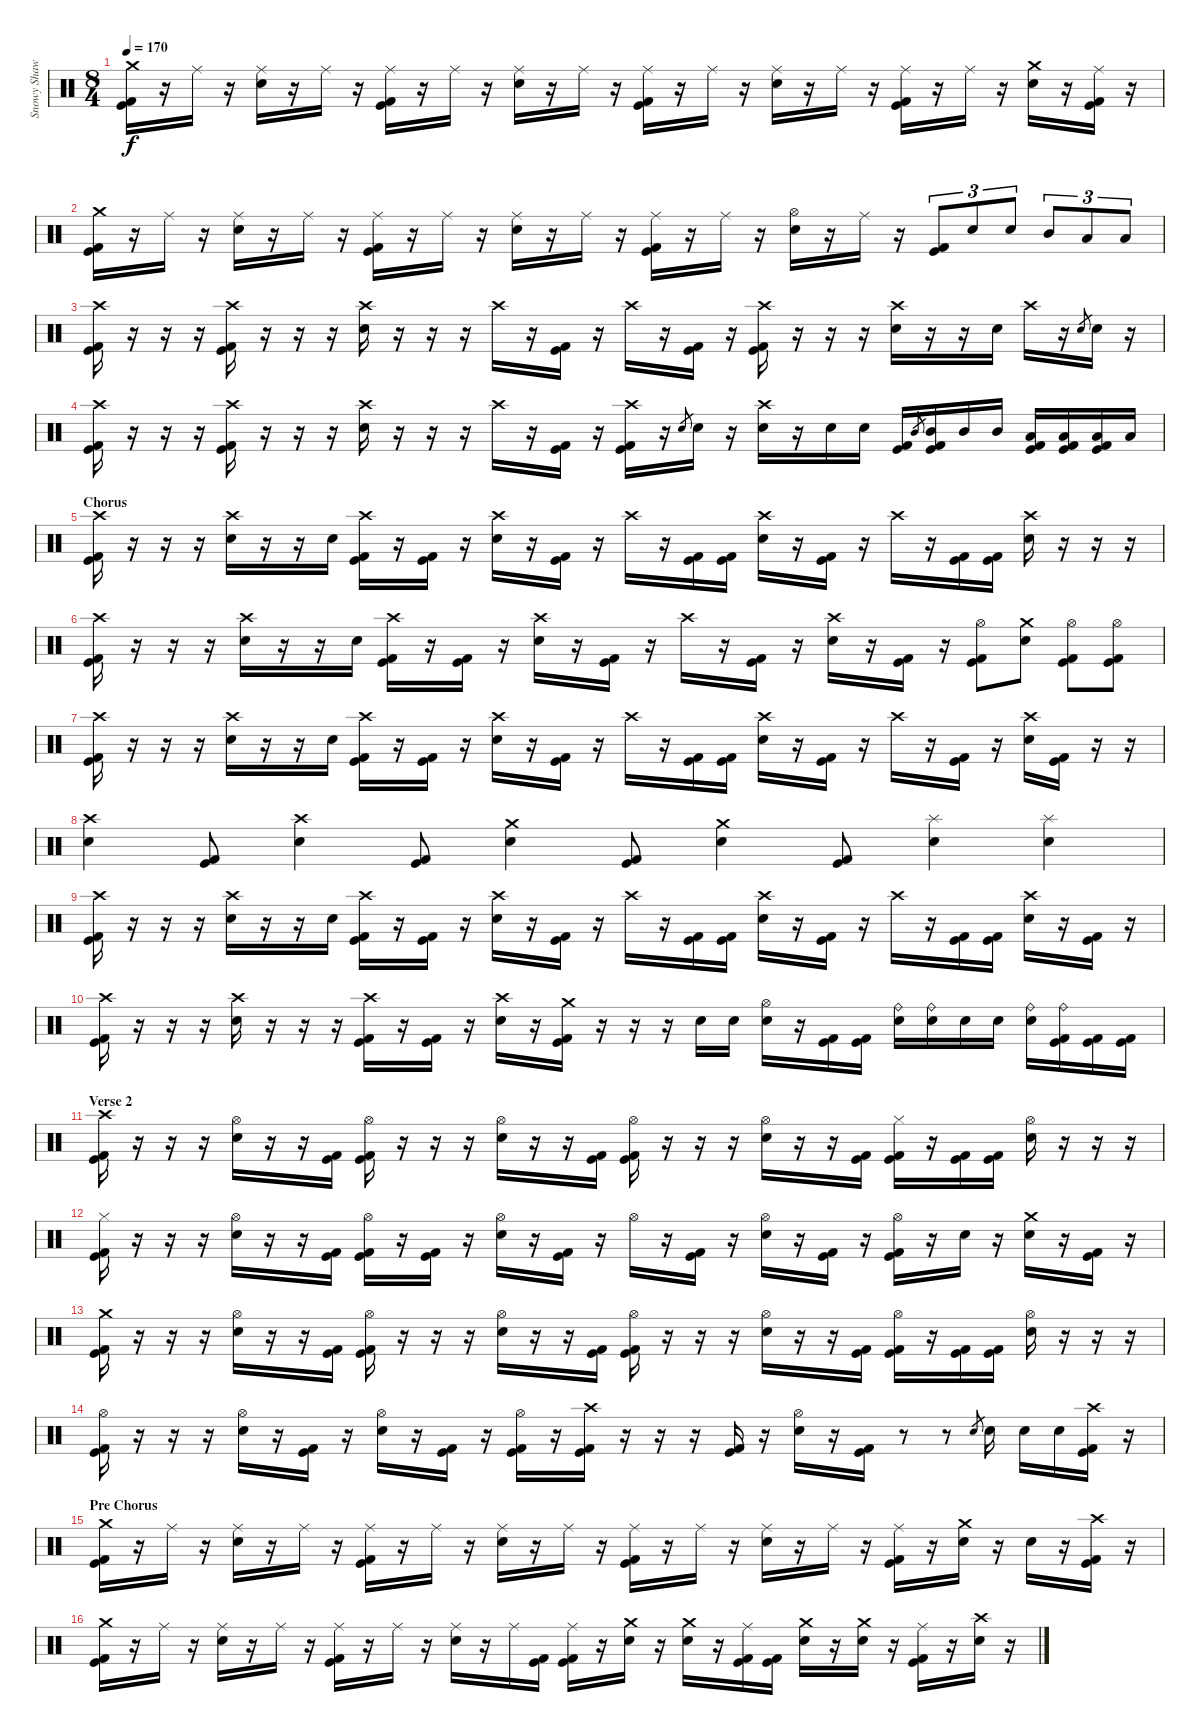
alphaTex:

\track ("Snowy Shaw" "Snowy Shaw") {instrument percussion}
\staff {score}
\articulation defaults
\ts (8 4)
\tempo 170
\clef neutral
\ks c
("Crash medium (hit)" "Kick (hit)" "Kick (hit) 2").16{dy f} r.16 "Ride (middle)".16 r.16 ("Ride (middle)" "Electric Snare (hit)").16 r.16 "Ride (middle)".16 r.16 ("Ride (middle)" "Kick (hit)" "Kick (hit) 2").16 r.16 "Ride (middle)".16 r.16 ("Ride (middle)" "Electric Snare (hit)").16 r.16 "Ride (middle)".16 r.16 ("Ride (middle)" "Kick (hit)" "Kick (hit) 2").16 r.16 "Ride (middle)".16 r.16 ("Ride (middle)" "Electric Snare (hit)").16 r.16 "Ride (middle)".16 r.16 ("Ride (middle)" "Kick (hit)" "Kick (hit) 2").16 r.16 "Ride (middle)".16 r.16 ("Crash medium (hit)" "Electric Snare (hit)").16 r.16 ("Ride (middle)" "Kick (hit)" "Kick (hit) 2").16 r.16 |
("Crash medium (hit)" "Kick (hit)" "Kick (hit) 2").16 r.16 "Ride (middle)".16 r.16 ("Ride (middle)" "Electric Snare (hit)").16 r.16 "Ride (middle)".16 r.16 ("Ride (middle)" "Kick (hit)" "Kick (hit) 2").16 r.16 "Ride (middle)".16 r.16 ("Ride (middle)" "Electric Snare (hit)").16 r.16 "Ride (middle)".16 r.16 ("Ride (middle)" "Kick (hit)" "Kick (hit) 2").16 r.16 "Ride (middle)".16 r.16 ("Hi-Hat (open)" "Electric Snare (hit)").16 r.16 "Ride (middle)".16 r.16 ("Kick (hit)" "Kick (hit) 2").8{tu (3 2)} "Electric Snare (hit)".8{tu (3 2)} "Electric Snare (hit)".8{tu (3 2)} "Mid Tom (hit)".8{tu (3 2)} "Low Tom (hit)".8{tu (3 2)} "Low Tom (hit)".8{tu (3 2)} |
("Crash high (hit)" "Kick (hit)" "Kick (hit) 2").16 r.16 r.16 r.16 ("Crash high (hit)" "Kick (hit)" "Kick (hit) 2").16 r.16 r.16 r.16 ("Crash high (hit)" "Electric Snare (hit)").16 r.16 r.16 r.16 "Crash high (hit)".16 r.16 ("Kick (hit)" "Kick (hit) 2").16 r.16 "Crash high (hit)".16 r.16 ("Kick (hit)" "Kick (hit) 2").16 r.16 ("Crash high (hit)" "Kick (hit)" "Kick (hit) 2").16 r.16 r.16 r.16 ("Crash high (hit)" "Electric Snare (hit)").16 r.16 r.16 "Electric Snare (hit)".16 "Crash high (hit)".16 r.16 "Electric Snare (hit)".8{gr} "Electric Snare (hit)".16 r.16 |
("Crash high (hit)" "Kick (hit)" "Kick (hit) 2").16 r.16 r.16 r.16 ("Crash high (hit)" "Kick (hit)" "Kick (hit) 2").16 r.16 r.16 r.16 ("Crash high (hit)" "Electric Snare (hit)").16 r.16 r.16 r.16 "Crash high (hit)".16 r.16 ("Kick (hit)" "Kick (hit) 2").16 r.16 ("Crash high (hit)" "Kick (hit)" "Kick (hit) 2").16 r.16 "Electric Snare (hit)".8{gr} "Electric Snare (hit)".16 r.16 ("Crash high (hit)" "Electric Snare (hit)").16 r.16 "Electric Snare (hit)".16 "Electric Snare (hit)".16 ("Kick (hit)" "Kick (hit) 2").16 "Mid Tom (hit)".8{gr} ("Mid Tom (hit)" "Kick (hit)" "Kick (hit) 2").16 "Mid Tom (hit)".16 "Mid Tom (hit)".16 ("Low Tom (hit)" "Kick (hit)" "Kick (hit) 2").16 ("Low Tom (hit)" "Kick (hit)" "Kick (hit) 2").16 ("Low Tom (hit)" "Kick (hit)" "Kick (hit) 2").16 "Low Tom (hit)".16 |
\section ("" "Chorus")
("Crash high (hit)" "Kick (hit)" "Kick (hit) 2").16 r.16 r.16 r.16 ("Crash high (hit)" "Electric Snare (hit)").16 r.16 r.16 "Electric Snare (hit)".16 ("Crash high (hit)" "Kick (hit)" "Kick (hit) 2").16 r.16 ("Kick (hit)" "Kick (hit) 2").16 r.16 ("Crash high (hit)" "Electric Snare (hit)").16 r.16 ("Kick (hit)" "Kick (hit) 2").16 r.16 "Crash high (hit)".16 r.16 ("Kick (hit) 2" "Kick (hit)").16 ("Kick (hit)" "Kick (hit) 2").16 ("Crash high (hit)" "Electric Snare (hit)").16 r.16 ("Kick (hit)" "Kick (hit) 2").16 r.16 "Crash high (hit)".16 r.16 ("Kick (hit) 2" "Kick (hit)").16 ("Kick (hit) 2" "Kick (hit)").16 ("Crash high (hit)" "Electric Snare (hit)").16 r.16 r.16 r.16 |
("Crash high (hit)" "Kick (hit)" "Kick (hit) 2").16 r.16 r.16 r.16 ("Crash high (hit)" "Electric Snare (hit)").16 r.16 r.16 "Electric Snare (hit)".16 ("Crash high (hit)" "Kick (hit)" "Kick (hit) 2").16 r.16 ("Kick (hit)" "Kick (hit) 2").16 r.16 ("Crash high (hit)" "Electric Snare (hit)").16 r.16 ("Kick (hit)" "Kick (hit) 2").16 r.16 "Crash high (hit)".16 r.16 ("Kick (hit) 2" "Kick (hit)").16 r.16 ("Crash high (hit)" "Electric Snare (hit)").16 r.16 ("Kick (hit)" "Kick (hit) 2").16 r.16 ("Hi-Hat (open)" "Kick (hit)" "Kick (hit) 2").8 ("Crash medium (hit)" "Electric Snare (hit)").8 ("Hi-Hat (open)" "Kick (hit)" "Kick (hit) 2").8 ("Hi-Hat (open)" "Kick (hit)" "Kick (hit) 2").8 |
("Crash high (hit)" "Kick (hit)" "Kick (hit) 2").16 r.16 r.16 r.16 ("Crash high (hit)" "Electric Snare (hit)").16 r.16 r.16 "Electric Snare (hit)".16 ("Crash high (hit)" "Kick (hit)" "Kick (hit) 2").16 r.16 ("Kick (hit)" "Kick (hit) 2").16 r.16 ("Crash high (hit)" "Electric Snare (hit)").16 r.16 ("Kick (hit)" "Kick (hit) 2").16 r.16 "Crash high (hit)".16 r.16 ("Kick (hit) 2" "Kick (hit)").16 ("Kick (hit)" "Kick (hit) 2").16 ("Crash high (hit)" "Electric Snare (hit)").16 r.16 ("Kick (hit)" "Kick (hit) 2").16 r.16 "Crash high (hit)".16 r.16 ("Kick (hit) 2" "Kick (hit)").16 r.16 ("Crash high (hit)" "Electric Snare (hit)").16 ("Kick (hit) 2" "Kick (hit)").16 r.16 r.16 |
("Crash high (hit)" "Electric Snare (hit)").4 ("Kick (hit)" "Kick (hit) 2").8 ("Crash high (hit)" "Electric Snare (hit)").4 ("Kick (hit)" "Kick (hit) 2").8 ("Crash medium (hit)" "Electric Snare (hit)").4 ("Kick (hit)" "Kick (hit) 2").8 ("Crash medium (hit)" "Electric Snare (hit)").4 ("Kick (hit)" "Kick (hit) 2").8 ("Splash (hit)" "Electric Snare (hit)").4 ("Splash (hit)" "Electric Snare (hit)").4 |
("Crash high (hit)" "Kick (hit)" "Kick (hit) 2").16 r.16 r.16 r.16 ("Crash high (hit)" "Electric Snare (hit)").16 r.16 r.16 "Electric Snare (hit)".16 ("Crash high (hit)" "Kick (hit)" "Kick (hit) 2").16 r.16 ("Kick (hit)" "Kick (hit) 2").16 r.16 ("Crash high (hit)" "Electric Snare (hit)").16 r.16 ("Kick (hit)" "Kick (hit) 2").16 r.16 "Crash high (hit)".16 r.16 ("Kick (hit) 2" "Kick (hit)").16 ("Kick (hit)" "Kick (hit) 2").16 ("Crash high (hit)" "Electric Snare (hit)").16 r.16 ("Kick (hit)" "Kick (hit) 2").16 r.16 "Crash high (hit)".16 r.16 ("Kick (hit) 2" "Kick (hit)").16 ("Kick (hit) 2" "Kick (hit)").16 ("Crash high (hit)" "Electric Snare (hit)").16 r.16 ("Kick (hit)" "Kick (hit) 2").16 r.16 |
("Crash high (hit)" "Kick (hit)" "Kick (hit) 2").16 r.16 r.16 r.16 ("Crash high (hit)" "Electric Snare (hit)").16 r.16 r.16 r.16 ("Crash high (hit)" "Kick (hit)" "Kick (hit) 2").16 r.16 ("Kick (hit)" "Kick (hit) 2").16 r.16 ("Crash high (hit)" "Electric Snare (hit)").16 r.16 ("Crash medium (hit)" "Kick (hit)" "Kick (hit) 2").16 r.16 r.16 r.16 "Electric Snare (hit)".16 "Electric Snare (hit)".16 ("Hi-Hat (open)" "Electric Snare (hit)").16 r.16 ("Kick (hit)" "Kick (hit) 2").16 ("Kick (hit) 2" "Kick (hit)").16 ("Ride (bell)" "Electric Snare (hit)").16 ("Ride (bell)" "Electric Snare (hit)").16 "Electric Snare (hit)".16 "Electric Snare (hit)".16 ("Ride (bell)" "Electric Snare (hit)").16 ("Ride (bell)" "Kick (hit) 2" "Kick (hit)").16 ("Kick (hit) 2" "Kick (hit)").16 ("Kick (hit) 2" "Kick (hit)").16 |
\section ("" "Verse 2")
("Crash high (hit)" "Kick (hit)" "Kick (hit) 2").16 r.16 r.16 r.16 ("Hi-Hat (open)" "Electric Snare (hit)").16 r.16 r.16 ("Kick (hit) 2" "Kick (hit)").16 ("Hi-Hat (open)" "Kick (hit)" "Kick (hit) 2").16 r.16 r.16 r.16 ("Hi-Hat (open)" "Electric Snare (hit)").16 r.16 r.16 ("Kick (hit)" "Kick (hit) 2").16 ("Hi-Hat (open)" "Kick (hit)" "Kick (hit) 2").16 r.16 r.16 r.16 ("Hi-Hat (open)" "Electric Snare (hit)").16 r.16 r.16 ("Kick (hit)" "Kick (hit) 2").16 ("Hi-Hat (closed)" "Kick (hit)" "Kick (hit) 2").16 r.16 ("Kick (hit)" "Kick (hit) 2").16 ("Kick (hit)" "Kick (hit) 2").16 ("Hi-Hat (open)" "Electric Snare (hit)").16 r.16 r.16 r.16 |
("Hi-Hat (closed)" "Kick (hit)" "Kick (hit) 2").16 r.16 r.16 r.16 ("Hi-Hat (open)" "Electric Snare (hit)").16 r.16 r.16 ("Kick (hit) 2" "Kick (hit)").16 ("Hi-Hat (open)" "Kick (hit)" "Kick (hit) 2").16 r.16 ("Kick (hit)" "Kick (hit) 2").16 r.16 ("Hi-Hat (open)" "Electric Snare (hit)").16 r.16 ("Kick (hit)" "Kick (hit) 2").16 r.16 "Hi-Hat (open)".16 r.16 ("Kick (hit)" "Kick (hit) 2").16 r.16 ("Hi-Hat (open)" "Electric Snare (hit)").16 r.16 ("Kick (hit)" "Kick (hit) 2").16 r.16 ("Hi-Hat (open)" "Kick (hit)" "Kick (hit) 2").16 r.16 "Electric Snare (hit)".16 r.16 ("Crash medium (hit)" "Electric Snare (hit)").16 r.16 ("Kick (hit)" "Kick (hit) 2").16 r.16 |
("Crash medium (hit)" "Kick (hit)" "Kick (hit) 2").16 r.16 r.16 r.16 ("Hi-Hat (open)" "Electric Snare (hit)").16 r.16 r.16 ("Kick (hit) 2" "Kick (hit)").16 ("Hi-Hat (open)" "Kick (hit)" "Kick (hit) 2").16 r.16 r.16 r.16 ("Hi-Hat (open)" "Electric Snare (hit)").16 r.16 r.16 ("Kick (hit)" "Kick (hit) 2").16 ("Hi-Hat (open)" "Kick (hit)" "Kick (hit) 2").16 r.16 r.16 r.16 ("Hi-Hat (open)" "Electric Snare (hit)").16 r.16 r.16 ("Kick (hit)" "Kick (hit) 2").16 ("Hi-Hat (open)" "Kick (hit)" "Kick (hit) 2").16 r.16 ("Kick (hit)" "Kick (hit) 2").16 ("Kick (hit)" "Kick (hit) 2").16 ("Hi-Hat (open)" "Electric Snare (hit)").16 r.16 r.16 r.16 |
("Hi-Hat (open)" "Kick (hit)" "Kick (hit) 2").16 r.16 r.16 r.16 ("Hi-Hat (open)" "Electric Snare (hit)").16 r.16 ("Kick (hit) 2" "Kick (hit)").16 r.16 ("Hi-Hat (open)" "Electric Snare (hit)").16 r.16 ("Kick (hit)" "Kick (hit) 2").16 r.16 ("Hi-Hat (open)" "Kick (hit) 2" "Kick (hit)").16 r.16 ("Crash high (hit)" "Kick (hit) 2" "Kick (hit)").16 r.16 r.16 r.16 ("Kick (hit)" "Kick (hit) 2").16 r.16 ("Hi-Hat (open)" "Electric Snare (hit)").16 r.16 ("Kick (hit)" "Kick (hit) 2").16 r.8 r.8 "Electric Snare (hit)".8{gr} "Electric Snare (hit)".16 "Electric Snare (hit)".16 "Electric Snare (hit)".16 ("Crash high (hit)" "Kick (hit) 2" "Kick (hit)").16 r.16 |
\section ("" "Pre Chorus")
("Crash medium (hit)" "Kick (hit)" "Kick (hit) 2").16 r.16 "Ride (middle)".16 r.16 ("Ride (middle)" "Electric Snare (hit)").16 r.16 "Ride (middle)".16 r.16 ("Ride (middle)" "Kick (hit)" "Kick (hit) 2").16 r.16 "Ride (middle)".16 r.16 ("Ride (middle)" "Electric Snare (hit)").16 r.16 "Ride (middle)".16 r.16 ("Ride (middle)" "Kick (hit)" "Kick (hit) 2").16 r.16 "Ride (middle)".16 r.16 ("Ride (middle)" "Electric Snare (hit)").16 r.16 "Ride (middle)".16 r.16 ("Ride (middle)" "Kick (hit)" "Kick (hit) 2").16 r.16 ("Crash medium (hit)" "Electric Snare (hit)").16 r.16 "Electric Snare (hit)".16 r.16 ("Crash high (hit)" "Kick (hit)" "Kick (hit) 2").16 r.16 |
("Crash medium (hit)" "Kick (hit)" "Kick (hit) 2").16 r.16 "Ride (middle)".16 r.16 ("Ride (middle)" "Electric Snare (hit)").16 r.16 "Ride (middle)".16 r.16 ("Ride (middle)" "Kick (hit)" "Kick (hit) 2").16 r.16 "Ride (middle)".16 r.16 ("Ride (middle)" "Electric Snare (hit)").16 r.16 "Ride (middle)".16 ("Kick (hit) 2" "Kick (hit)").16 ("Ride (middle)" "Kick (hit)" "Kick (hit) 2").16 r.16 ("Crash medium (hit)" "Electric Snare (hit)").16 r.16 ("Crash medium (hit)" "Electric Snare (hit)").16 r.16 ("Ride (middle)" "Kick (hit)" "Kick (hit) 2").16 ("Kick (hit) 2" "Kick (hit)").16 ("Crash medium (hit)" "Electric Snare (hit)").16 r.16 ("Crash medium (hit)" "Electric Snare (hit)").16 r.16 ("Ride (middle)" "Kick (hit)" "Kick (hit) 2").16 r.16 ("Crash high (hit)" "Electric Snare (hit)").16 r.16
